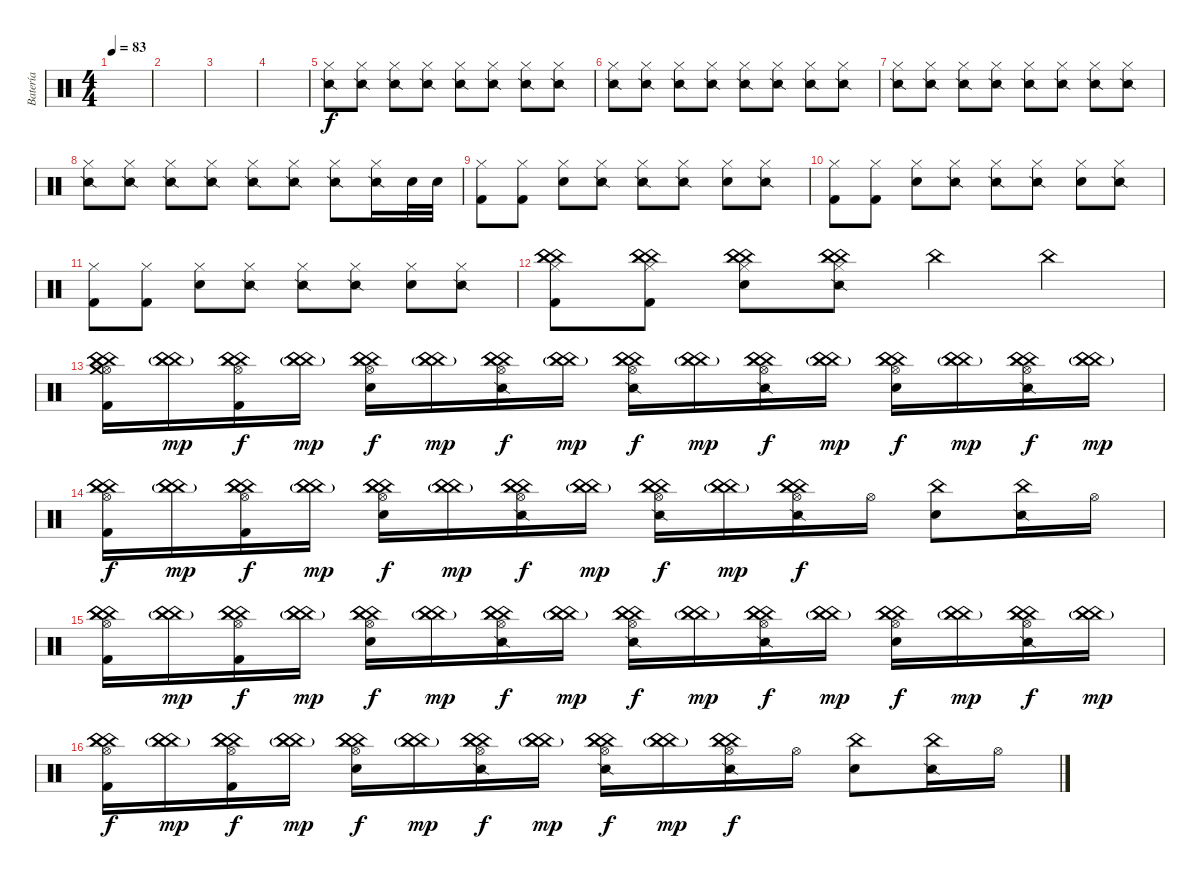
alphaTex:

\track ("Batería" "Batería") {instrument percussion}
\staff {score}
\articulation defaults
\ts (4 4)
\tempo 83
\clef neutral
\ks c
|
|
|
|
("Hi-Hat (closed)" "Snare (side stick) 2").8 ("Hi-Hat (closed)" "Snare (side stick) 2").8 ("Hi-Hat (closed)" "Snare (side stick) 2").8 ("Hi-Hat (closed)" "Snare (side stick) 2").8 ("Hi-Hat (closed)" "Snare (side stick) 2").8 ("Hi-Hat (closed)" "Snare (side stick) 2").8 ("Hi-Hat (closed)" "Snare (side stick) 2").8 ("Hi-Hat (closed)" "Snare (side stick) 2").8 |
("Hi-Hat (closed)" "Snare (side stick) 2").8 ("Hi-Hat (closed)" "Snare (side stick) 2").8 ("Hi-Hat (closed)" "Snare (side stick) 2").8 ("Hi-Hat (closed)" "Snare (side stick) 2").8 ("Hi-Hat (closed)" "Snare (side stick) 2").8 ("Hi-Hat (closed)" "Snare (side stick) 2").8 ("Hi-Hat (closed)" "Snare (side stick) 2").8 ("Hi-Hat (closed)" "Snare (side stick) 2").8 |
("Hi-Hat (closed)" "Snare (side stick) 2").8 ("Hi-Hat (closed)" "Snare (side stick) 2").8 ("Hi-Hat (closed)" "Snare (side stick) 2").8 ("Hi-Hat (closed)" "Snare (side stick) 2").8 ("Hi-Hat (closed)" "Snare (side stick) 2").8 ("Hi-Hat (closed)" "Snare (side stick) 2").8 ("Hi-Hat (closed)" "Snare (side stick) 2").8 ("Hi-Hat (closed)" "Snare (side stick) 2").8 |
("Hi-Hat (closed)" "Snare (side stick) 2").8 ("Hi-Hat (closed)" "Snare (side stick) 2").8 ("Hi-Hat (closed)" "Snare (side stick) 2").8 ("Hi-Hat (closed)" "Snare (side stick) 2").8 ("Hi-Hat (closed)" "Snare (side stick) 2").8 ("Hi-Hat (closed)" "Snare (side stick) 2").8 ("Hi-Hat (closed)" "Snare (side stick) 2").8 ("Hi-Hat (closed)" "Snare (side stick) 2").16 "Electric Snare (hit)".32 "Electric Snare (hit)".32 |
("Hi-Hat (closed)" "Kick (hit) 2").8 ("Hi-Hat (closed)" "Kick (hit) 2").8 ("Hi-Hat (closed)" "Electric Snare (hit)").8 ("Hi-Hat (closed)" "Snare (side stick) 2").8 ("Hi-Hat (closed)" "Snare (side stick) 2").8 ("Hi-Hat (closed)" "Snare (side stick) 2").8 ("Hi-Hat (closed)" "Electric Snare (hit)").8 ("Hi-Hat (closed)" "Snare (side stick) 2").8 |
("Hi-Hat (closed)" "Kick (hit) 2").8 ("Hi-Hat (closed)" "Kick (hit) 2").8 ("Hi-Hat (closed)" "Electric Snare (hit)").8 ("Hi-Hat (closed)" "Snare (side stick) 2").8 ("Hi-Hat (closed)" "Snare (side stick) 2").8 ("Hi-Hat (closed)" "Snare (side stick) 2").8 ("Hi-Hat (closed)" "Electric Snare (hit)").8 ("Hi-Hat (closed)" "Snare (side stick) 2").8 |
("Hi-Hat (closed)" "Kick (hit) 2").8 ("Hi-Hat (closed)" "Kick (hit) 2").8 ("Hi-Hat (closed)" "Electric Snare (hit)").8 ("Hi-Hat (closed)" "Snare (side stick) 2").8 ("Hi-Hat (closed)" "Snare (side stick) 2").8 ("Hi-Hat (closed)" "Snare (side stick) 2").8 ("Hi-Hat (closed)" "Electric Snare (hit)").8 ("Hi-Hat (closed)" "Snare (side stick) 2").8 |
("Hi-Hat (closed)" "China (hit)" "China (hit)" "China (hit)" "Kick (hit) 2").8 ("Hi-Hat (closed)" "China (hit)" "China (hit)" "China (hit)" "Kick (hit) 2").8 ("Hi-Hat (closed)" "China (hit)" "China (hit)" "China (hit)" "Electric Snare (hit)").8 ("Hi-Hat (closed)" "China (hit)" "China (hit)" "China (hit)" "Snare (side stick) 2").8 "China (hit)".4 "China (hit)".4 |
("Hi-Hat (open)" "China (hit)" "China (hit)" "China (hit)" "Kick (hit) 2" "Crash medium (hit)").16 ("China (hit)"{g} "China (hit)"{g} "China (hit)"{g}).16{dy mp} ("Hi-Hat (open)" "China (hit)" "China (hit)" "China (hit)" "Kick (hit) 2").16{dy f} ("China (hit)"{g} "China (hit)"{g} "China (hit)"{g}).16{dy mp} ("Hi-Hat (open)" "China (hit)" "China (hit)" "China (hit)" "Electric Snare (hit)").16{dy f} ("China (hit)"{g} "China (hit)"{g} "China (hit)"{g}).16{dy mp} ("Hi-Hat (open)" "China (hit)" "China (hit)" "China (hit)" "Snare (side stick) 2").16{dy f} ("China (hit)"{g} "China (hit)"{g} "China (hit)"{g}).16{dy mp} ("Hi-Hat (open)" "China (hit)" "China (hit)" "China (hit)" "Snare (side stick) 2").16{dy f} ("China (hit)"{g} "China (hit)"{g} "China (hit)"{g}).16{dy mp} ("Hi-Hat (open)" "China (hit)" "China (hit)" "China (hit)" "Snare (side stick) 2").16{dy f} ("China (hit)"{g} "China (hit)"{g} "China (hit)"{g}).16{dy mp} ("Hi-Hat (open)" "China (hit)" "China (hit)" "China (hit)" "Electric Snare (hit)").16{dy f} ("China (hit)"{g} "China (hit)"{g} "China (hit)"{g}).16{dy mp} ("Hi-Hat (open)" "China (hit)" "China (hit)" "China (hit)" "Snare (side stick) 2").16{dy f} ("China (hit)"{g} "China (hit)"{g} "China (hit)"{g}).16{dy mp} |
("Hi-Hat (open)" "China (hit)" "China (hit)" "China (hit)" "Kick (hit) 2").16{dy f} ("China (hit)"{g} "China (hit)"{g} "China (hit)"{g}).16{dy mp} ("Hi-Hat (open)" "China (hit)" "China (hit)" "China (hit)" "Kick (hit) 2").16{dy f} ("China (hit)"{g} "China (hit)"{g} "China (hit)"{g}).16{dy mp} ("Hi-Hat (open)" "China (hit)" "China (hit)" "China (hit)" "Electric Snare (hit)").16{dy f} ("China (hit)"{g} "China (hit)"{g} "China (hit)"{g}).16{dy mp} ("Hi-Hat (open)" "China (hit)" "China (hit)" "China (hit)" "Snare (side stick) 2").16{dy f} ("China (hit)"{g} "China (hit)"{g} "China (hit)"{g}).16{dy mp} ("Hi-Hat (open)" "China (hit)" "China (hit)" "China (hit)" "Snare (side stick) 2").16{dy f} ("China (hit)"{g} "China (hit)"{g} "China (hit)"{g}).16{dy mp} ("Hi-Hat (open)" "China (hit)" "China (hit)" "China (hit)" "Snare (side stick) 2").16{dy f} "Hi-Hat (open)".16 ("China (hit)" "Electric Snare (hit)").8 ("China (hit)" "Snare (side stick) 2").16 "Hi-Hat (open)".16 |
("Hi-Hat (open)" "China (hit)" "China (hit)" "China (hit)" "Kick (hit) 2").16 ("China (hit)"{g} "China (hit)"{g} "China (hit)"{g}).16{dy mp} ("Hi-Hat (open)" "China (hit)" "China (hit)" "China (hit)" "Kick (hit) 2").16{dy f} ("China (hit)"{g} "China (hit)"{g} "China (hit)"{g}).16{dy mp} ("Hi-Hat (open)" "China (hit)" "China (hit)" "China (hit)" "Electric Snare (hit)").16{dy f} ("China (hit)"{g} "China (hit)"{g} "China (hit)"{g}).16{dy mp} ("Hi-Hat (open)" "China (hit)" "China (hit)" "China (hit)" "Snare (side stick) 2").16{dy f} ("China (hit)"{g} "China (hit)"{g} "China (hit)"{g}).16{dy mp} ("Hi-Hat (open)" "China (hit)" "China (hit)" "China (hit)" "Snare (side stick) 2").16{dy f} ("China (hit)"{g} "China (hit)"{g} "China (hit)"{g}).16{dy mp} ("Hi-Hat (open)" "China (hit)" "China (hit)" "China (hit)" "Snare (side stick) 2").16{dy f} ("China (hit)"{g} "China (hit)"{g} "China (hit)"{g}).16{dy mp} ("Hi-Hat (open)" "China (hit)" "China (hit)" "China (hit)" "Electric Snare (hit)").16{dy f} ("China (hit)"{g} "China (hit)"{g} "China (hit)"{g}).16{dy mp} ("Hi-Hat (open)" "China (hit)" "China (hit)" "China (hit)" "Snare (side stick) 2").16{dy f} ("China (hit)"{g} "China (hit)"{g} "China (hit)"{g}).16{dy mp} |
("Hi-Hat (open)" "China (hit)" "China (hit)" "China (hit)" "Kick (hit) 2").16{dy f} ("China (hit)"{g} "China (hit)"{g} "China (hit)"{g}).16{dy mp} ("Hi-Hat (open)" "China (hit)" "China (hit)" "China (hit)" "Kick (hit) 2").16{dy f} ("China (hit)"{g} "China (hit)"{g} "China (hit)"{g}).16{dy mp} ("Hi-Hat (open)" "China (hit)" "China (hit)" "China (hit)" "Electric Snare (hit)").16{dy f} ("China (hit)"{g} "China (hit)"{g} "China (hit)"{g}).16{dy mp} ("Hi-Hat (open)" "China (hit)" "China (hit)" "China (hit)" "Snare (side stick) 2").16{dy f} ("China (hit)"{g} "China (hit)"{g} "China (hit)"{g}).16{dy mp} ("Hi-Hat (open)" "China (hit)" "China (hit)" "China (hit)" "Snare (side stick) 2").16{dy f} ("China (hit)"{g} "China (hit)"{g} "China (hit)"{g}).16{dy mp} ("Hi-Hat (open)" "China (hit)" "China (hit)" "China (hit)" "Snare (side stick) 2").16{dy f} "Hi-Hat (open)".16 ("China (hit)" "Electric Snare (hit)").8 ("China (hit)" "Snare (side stick) 2").16 "Hi-Hat (open)".16
